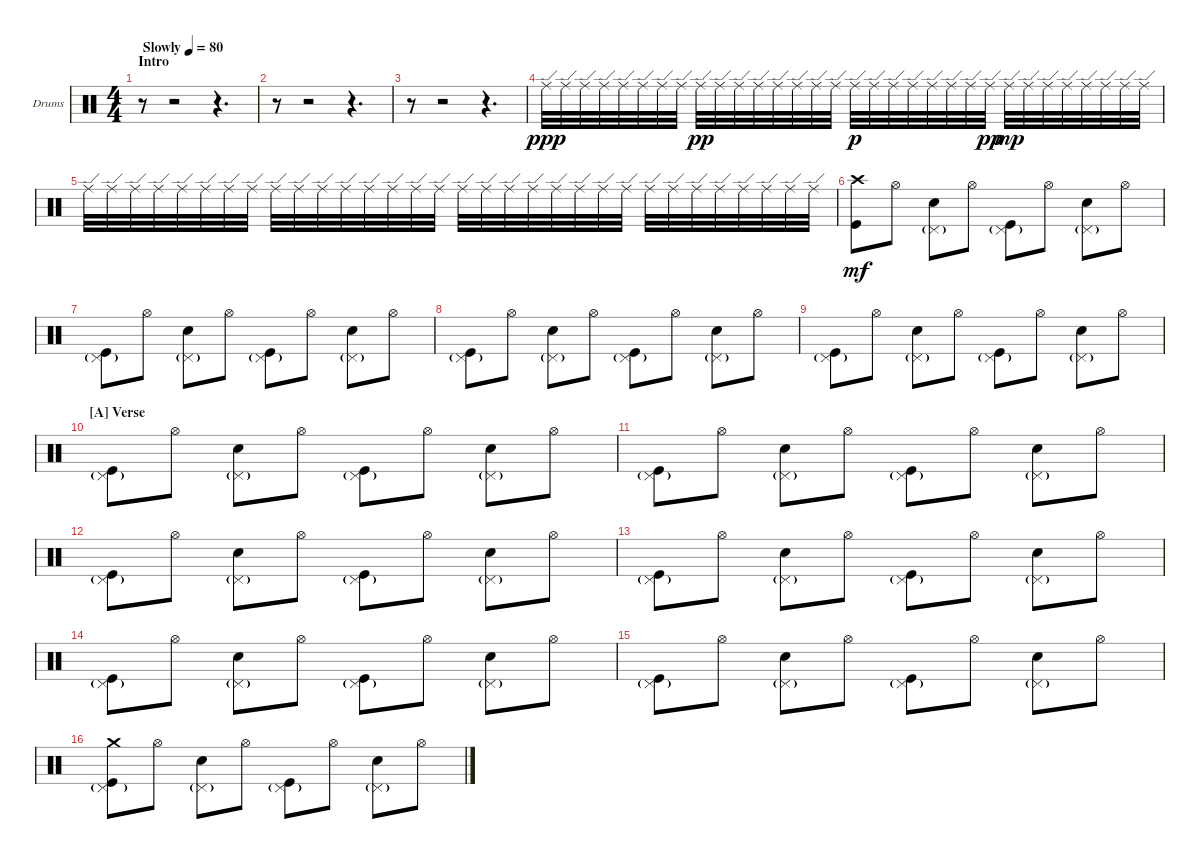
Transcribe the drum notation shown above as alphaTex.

\defaultSystemsLayout 4
\bracketExtendMode groupsimilarinstruments
\firstSystemTrackNameOrientation horizontal
\otherSystemsTrackNameOrientation horizontal
\track ("Drumkit" "Drums") {instrument percussion}
\staff {score}
\articulation defaults
\ts (4 4)
\section ("" "Intro")
\tempo (80 "Slowly")
\clef neutral
\scale
1.05675
\ks c
r.8{dy ppp} r.2 r.4{d} |
\scale
0.943253 r.8 r.2 r.4{d} |
\scale
1.02648 r.8 r.2 r.4{d} |
\scale
0.973518 "Ride (edge)".32 "Ride (edge)".32 "Ride (edge)".32 "Ride (edge)".32 "Ride (edge)".32 "Ride (edge)".32 "Ride (edge)".32 "Ride (edge)".32 "Ride (edge)".32{dy pp} "Ride (edge)".32 "Ride (edge)".32 "Ride (edge)".32 "Ride (edge)".32 "Ride (edge)".32 "Ride (edge)".32 "Ride (edge)".32 "Ride (edge)".32{dy p} "Ride (edge)".32 "Ride (edge)".32 "Ride (edge)".32 "Ride (edge)".32 "Ride (edge)".32 "Ride (edge)".32 "Ride (edge)".32{dy pp} "Ride (edge)".32{dy mp} "Ride (edge)".32 "Ride (edge)".32 "Ride (edge)".32 "Ride (edge)".32 "Ride (edge)".32 "Ride (edge)".32 "Ride (edge)".32 |
\scale
1.02648 "Ride (edge)".32 "Ride (edge)".32 "Ride (edge)".32 "Ride (edge)".32 "Ride (edge)".32 "Ride (edge)".32 "Ride (edge)".32 "Ride (edge)".32 "Ride (edge)".32 "Ride (edge)".32 "Ride (edge)".32 "Ride (edge)".32 "Ride (edge)".32 "Ride (edge)".32 "Ride (edge)".32 "Ride (edge)".32 "Ride (edge)".32 "Ride (edge)".32 "Ride (edge)".32 "Ride (edge)".32 "Ride (edge)".32 "Ride (edge)".32 "Ride (edge)".32 "Ride (edge)".32 "Ride (edge)".32 "Ride (edge)".32 "Ride (edge)".32 "Ride (edge)".32 "Ride (edge)".32 "Ride (edge)".32 "Ride (edge)".32 "Ride (edge)".32 |
\scale
0.973518 ("Crash high (hit)" "Kick (hit)").8{dy mf} "Hi-Hat (open)".8 ("Pedal Hi-Hat (hit)"{g} "Snare (hit) 2").8 "Hi-Hat (open)".8 ("Pedal Hi-Hat (hit)"{g} "Kick (hit)").8 "Hi-Hat (open)".8 ("Pedal Hi-Hat (hit)"{g} "Snare (hit) 2").8 "Hi-Hat (open)".8 |
\scale
1.02648 ("Pedal Hi-Hat (hit)"{g} "Kick (hit)").8 "Hi-Hat (open)".8 ("Pedal Hi-Hat (hit)"{g} "Snare (hit) 2").8 "Hi-Hat (open)".8 ("Pedal Hi-Hat (hit)"{g} "Kick (hit)").8 "Hi-Hat (open)".8 ("Pedal Hi-Hat (hit)"{g} "Snare (hit) 2").8 "Hi-Hat (open)".8 |
\scale
0.973518 ("Pedal Hi-Hat (hit)"{g} "Kick (hit)").8 "Hi-Hat (open)".8 ("Pedal Hi-Hat (hit)"{g} "Snare (hit) 2").8 "Hi-Hat (open)".8 ("Pedal Hi-Hat (hit)"{g} "Kick (hit)").8 "Hi-Hat (open)".8 ("Pedal Hi-Hat (hit)"{g} "Snare (hit) 2").8 "Hi-Hat (open)".8 |
\scale
1.02648 ("Pedal Hi-Hat (hit)"{g} "Kick (hit)").8 "Hi-Hat (open)".8 ("Pedal Hi-Hat (hit)"{g} "Snare (hit) 2").8 "Hi-Hat (open)".8 ("Pedal Hi-Hat (hit)"{g} "Kick (hit)").8 "Hi-Hat (open)".8 ("Pedal Hi-Hat (hit)"{g} "Snare (hit) 2").8 "Hi-Hat (open)".8 |
\section ("A" "Verse")
\scale
0.973518 ("Pedal Hi-Hat (hit)"{g} "Kick (hit)").8 "Hi-Hat (open)".8 ("Pedal Hi-Hat (hit)"{g} "Snare (hit) 2").8 "Hi-Hat (open)".8 ("Pedal Hi-Hat (hit)"{g} "Kick (hit)").8 "Hi-Hat (open)".8 ("Pedal Hi-Hat (hit)"{g} "Snare (hit) 2").8 "Hi-Hat (open)".8 |
\scale
1.02648 ("Pedal Hi-Hat (hit)"{g} "Kick (hit)").8 "Hi-Hat (open)".8 ("Pedal Hi-Hat (hit)"{g} "Snare (hit) 2").8 "Hi-Hat (open)".8 ("Pedal Hi-Hat (hit)"{g} "Kick (hit)").8 "Hi-Hat (open)".8 ("Pedal Hi-Hat (hit)"{g} "Snare (hit) 2").8 "Hi-Hat (open)".8 |
\scale
0.973518 ("Pedal Hi-Hat (hit)"{g} "Kick (hit)").8 "Hi-Hat (open)".8 ("Pedal Hi-Hat (hit)"{g} "Snare (hit) 2").8 "Hi-Hat (open)".8 ("Pedal Hi-Hat (hit)"{g} "Kick (hit)").8 "Hi-Hat (open)".8 ("Pedal Hi-Hat (hit)"{g} "Snare (hit) 2").8 "Hi-Hat (open)".8 |
\scale
1.02648 ("Pedal Hi-Hat (hit)"{g} "Kick (hit)").8 "Hi-Hat (open)".8 ("Pedal Hi-Hat (hit)"{g} "Snare (hit) 2").8 "Hi-Hat (open)".8 ("Pedal Hi-Hat (hit)"{g} "Kick (hit)").8 "Hi-Hat (open)".8 ("Pedal Hi-Hat (hit)"{g} "Snare (hit) 2").8 "Hi-Hat (open)".8 |
\scale
0.973518 ("Pedal Hi-Hat (hit)"{g} "Kick (hit)").8 "Hi-Hat (open)".8 ("Pedal Hi-Hat (hit)"{g} "Snare (hit) 2").8 "Hi-Hat (open)".8 ("Pedal Hi-Hat (hit)"{g} "Kick (hit)").8 "Hi-Hat (open)".8 ("Pedal Hi-Hat (hit)"{g} "Snare (hit) 2").8 "Hi-Hat (open)".8 |
\scale
1.02648 ("Pedal Hi-Hat (hit)"{g} "Kick (hit)").8 "Hi-Hat (open)".8 ("Pedal Hi-Hat (hit)"{g} "Snare (hit) 2").8 "Hi-Hat (open)".8 ("Pedal Hi-Hat (hit)"{g} "Kick (hit)").8 "Hi-Hat (open)".8 ("Pedal Hi-Hat (hit)"{g} "Snare (hit) 2").8 "Hi-Hat (open)".8 |
\scale
0.973518 ("Pedal Hi-Hat (hit)"{g} "Crash medium (hit)" "Kick (hit)").8 "Hi-Hat (open)".8 ("Pedal Hi-Hat (hit)"{g} "Snare (hit) 2").8 "Hi-Hat (open)".8 ("Pedal Hi-Hat (hit)"{g} "Kick (hit)").8 "Hi-Hat (open)".8 ("Pedal Hi-Hat (hit)"{g} "Snare (hit) 2").8 "Hi-Hat (open)".8
